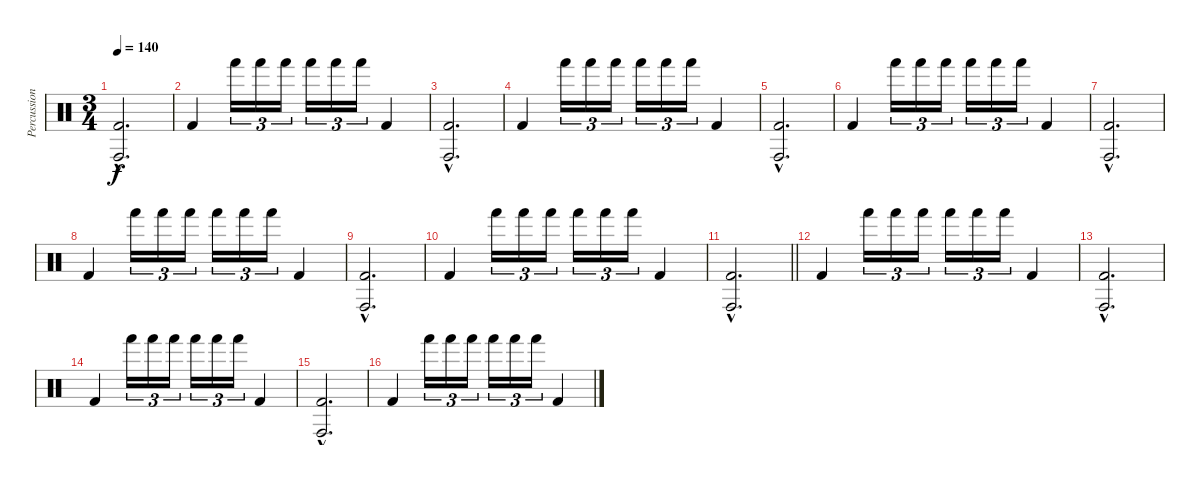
\track ("Percussion" "Percussion") {instrument percussion}
\staff {score}
\articulation defaults
\ts (3 4)
\tempo 140
\clef neutral
\ks c
("Conga high (hit)"{hac} "Kick (hit) 2"{hac}).2{d dy f} |
"Kick (hit) 2".4 "Hand (hit)".16{tu (3 2)} "Hand (hit)".16{tu (3 2)} "Hand (hit)".16{tu (3 2)} "Hand (hit)".16{tu (3 2)} "Hand (hit)".16{tu (3 2)} "Hand (hit)".16{tu (3 2)} "Kick (hit) 2".4 |
("Conga high (hit)"{hac} "Kick (hit) 2"{hac}).2{d} |
"Kick (hit) 2".4{volume 7} "Hand (hit)".16{tu (3 2)} "Hand (hit)".16{tu (3 2)} "Hand (hit)".16{tu (3 2)} "Hand (hit)".16{tu (3 2)} "Hand (hit)".16{tu (3 2)} "Hand (hit)".16{tu (3 2)} "Kick (hit) 2".4 |
("Conga high (hit)"{hac} "Kick (hit) 2"{hac}).2{d} |
"Kick (hit) 2".4 "Hand (hit)".16{tu (3 2)} "Hand (hit)".16{tu (3 2)} "Hand (hit)".16{tu (3 2)} "Hand (hit)".16{tu (3 2)} "Hand (hit)".16{tu (3 2)} "Hand (hit)".16{tu (3 2)} "Kick (hit) 2".4 |
("Conga high (hit)"{hac} "Kick (hit) 2"{hac}).2{d} |
"Kick (hit) 2".4 "Hand (hit)".16{tu (3 2)} "Hand (hit)".16{tu (3 2)} "Hand (hit)".16{tu (3 2)} "Hand (hit)".16{tu (3 2)} "Hand (hit)".16{tu (3 2)} "Hand (hit)".16{tu (3 2)} "Kick (hit) 2".4 |
("Conga high (hit)"{hac} "Kick (hit) 2"{hac}).2{d} |
"Kick (hit) 2".4 "Hand (hit)".16{tu (3 2)} "Hand (hit)".16{tu (3 2)} "Hand (hit)".16{tu (3 2)} "Hand (hit)".16{tu (3 2)} "Hand (hit)".16{tu (3 2)} "Hand (hit)".16{tu (3 2)} "Kick (hit) 2".4 |
\barLineRight lightlight
("Conga high (hit)"{hac} "Kick (hit) 2"{hac}).2{d} |
"Kick (hit) 2".4 "Hand (hit)".16{tu (3 2)} "Hand (hit)".16{tu (3 2)} "Hand (hit)".16{tu (3 2)} "Hand (hit)".16{tu (3 2)} "Hand (hit)".16{tu (3 2)} "Hand (hit)".16{tu (3 2)} "Kick (hit) 2".4 |
("Conga high (hit)"{hac} "Kick (hit) 2"{hac}).2{d} |
"Kick (hit) 2".4 "Hand (hit)".16{tu (3 2)} "Hand (hit)".16{tu (3 2)} "Hand (hit)".16{tu (3 2)} "Hand (hit)".16{tu (3 2)} "Hand (hit)".16{tu (3 2)} "Hand (hit)".16{tu (3 2)} "Kick (hit) 2".4 |
("Conga high (hit)"{hac} "Kick (hit) 2"{hac}).2{d} |
"Kick (hit) 2".4 "Hand (hit)".16{tu (3 2)} "Hand (hit)".16{tu (3 2)} "Hand (hit)".16{tu (3 2)} "Hand (hit)".16{tu (3 2)} "Hand (hit)".16{tu (3 2)} "Hand (hit)".16{tu (3 2)} "Kick (hit) 2".4
